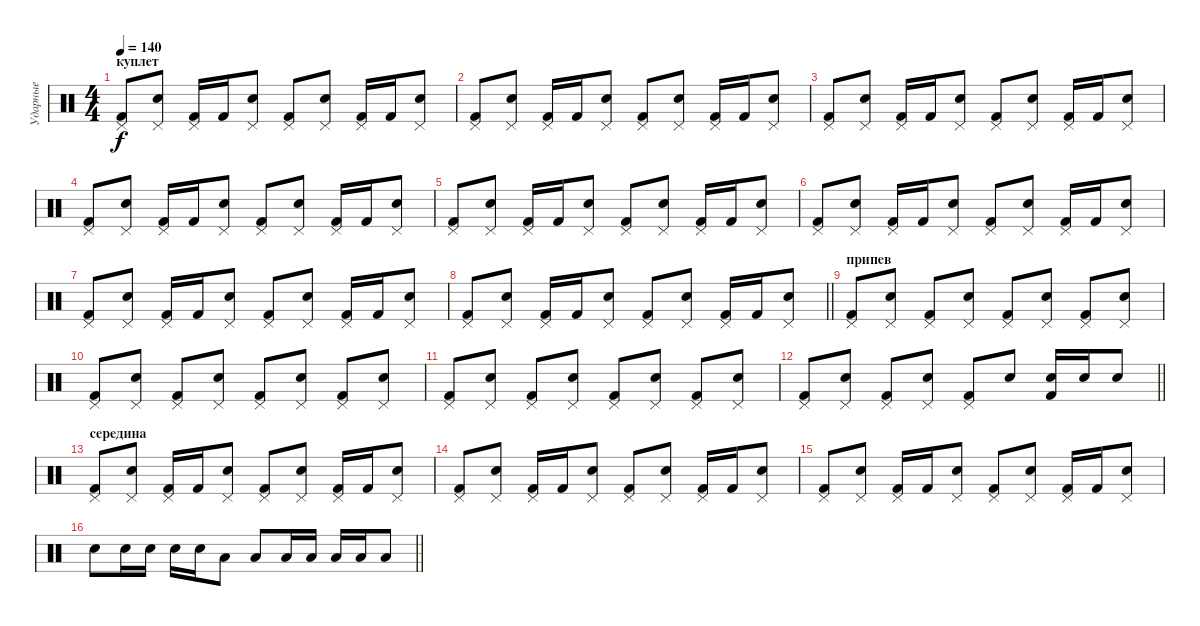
\track ("Ударные" "Ударные") {instrument percussion}
\staff {score}
\articulation defaults
\ts (4 4)
\section ("" "куплет")
\tempo 140
\clef neutral
\ks c
("Pedal Hi-Hat (hit)" "Kick (hit) 2").8{dy f} ("Pedal Hi-Hat (hit)" "Electric Snare (hit)").8 ("Pedal Hi-Hat (hit)" "Kick (hit) 2").16 "Kick (hit) 2".16 ("Pedal Hi-Hat (hit)" "Electric Snare (hit)").8 ("Pedal Hi-Hat (hit)" "Kick (hit) 2").8 ("Pedal Hi-Hat (hit)" "Electric Snare (hit)").8 ("Pedal Hi-Hat (hit)" "Kick (hit) 2").16 "Kick (hit) 2".16 ("Pedal Hi-Hat (hit)" "Electric Snare (hit)").8 |
("Pedal Hi-Hat (hit)" "Kick (hit) 2").8 ("Pedal Hi-Hat (hit)" "Electric Snare (hit)").8 ("Pedal Hi-Hat (hit)" "Kick (hit) 2").16 "Kick (hit) 2".16 ("Pedal Hi-Hat (hit)" "Electric Snare (hit)").8 ("Pedal Hi-Hat (hit)" "Kick (hit) 2").8 ("Pedal Hi-Hat (hit)" "Electric Snare (hit)").8 ("Pedal Hi-Hat (hit)" "Kick (hit) 2").16 "Kick (hit) 2".16 ("Pedal Hi-Hat (hit)" "Electric Snare (hit)").8 |
("Pedal Hi-Hat (hit)" "Kick (hit) 2").8 ("Pedal Hi-Hat (hit)" "Electric Snare (hit)").8 ("Pedal Hi-Hat (hit)" "Kick (hit) 2").16 "Kick (hit) 2".16 ("Pedal Hi-Hat (hit)" "Electric Snare (hit)").8 ("Pedal Hi-Hat (hit)" "Kick (hit) 2").8 ("Pedal Hi-Hat (hit)" "Electric Snare (hit)").8 ("Pedal Hi-Hat (hit)" "Kick (hit) 2").16 "Kick (hit) 2".16 ("Pedal Hi-Hat (hit)" "Electric Snare (hit)").8 |
("Pedal Hi-Hat (hit)" "Kick (hit) 2").8 ("Pedal Hi-Hat (hit)" "Electric Snare (hit)").8 ("Pedal Hi-Hat (hit)" "Kick (hit) 2").16 "Kick (hit) 2".16 ("Pedal Hi-Hat (hit)" "Electric Snare (hit)").8 ("Pedal Hi-Hat (hit)" "Kick (hit) 2").8 ("Pedal Hi-Hat (hit)" "Electric Snare (hit)").8 ("Pedal Hi-Hat (hit)" "Kick (hit) 2").16 "Kick (hit) 2".16 ("Pedal Hi-Hat (hit)" "Electric Snare (hit)").8 |
("Pedal Hi-Hat (hit)" "Kick (hit) 2").8 ("Pedal Hi-Hat (hit)" "Electric Snare (hit)").8 ("Pedal Hi-Hat (hit)" "Kick (hit) 2").16 "Kick (hit) 2".16 ("Pedal Hi-Hat (hit)" "Electric Snare (hit)").8 ("Pedal Hi-Hat (hit)" "Kick (hit) 2").8 ("Pedal Hi-Hat (hit)" "Electric Snare (hit)").8 ("Pedal Hi-Hat (hit)" "Kick (hit) 2").16 "Kick (hit) 2".16 ("Pedal Hi-Hat (hit)" "Electric Snare (hit)").8 |
("Pedal Hi-Hat (hit)" "Kick (hit) 2").8 ("Pedal Hi-Hat (hit)" "Electric Snare (hit)").8 ("Pedal Hi-Hat (hit)" "Kick (hit) 2").16 "Kick (hit) 2".16 ("Pedal Hi-Hat (hit)" "Electric Snare (hit)").8 ("Pedal Hi-Hat (hit)" "Kick (hit) 2").8 ("Pedal Hi-Hat (hit)" "Electric Snare (hit)").8 ("Pedal Hi-Hat (hit)" "Kick (hit) 2").16 "Kick (hit) 2".16 ("Pedal Hi-Hat (hit)" "Electric Snare (hit)").8 |
("Pedal Hi-Hat (hit)" "Kick (hit) 2").8 ("Pedal Hi-Hat (hit)" "Electric Snare (hit)").8 ("Pedal Hi-Hat (hit)" "Kick (hit) 2").16 "Kick (hit) 2".16 ("Pedal Hi-Hat (hit)" "Electric Snare (hit)").8 ("Pedal Hi-Hat (hit)" "Kick (hit) 2").8 ("Pedal Hi-Hat (hit)" "Electric Snare (hit)").8 ("Pedal Hi-Hat (hit)" "Kick (hit) 2").16 "Kick (hit) 2".16 ("Pedal Hi-Hat (hit)" "Electric Snare (hit)").8 |
\barLineRight lightlight
("Pedal Hi-Hat (hit)" "Kick (hit) 2").8 ("Pedal Hi-Hat (hit)" "Electric Snare (hit)").8 ("Pedal Hi-Hat (hit)" "Kick (hit) 2").16 "Kick (hit) 2".16 ("Pedal Hi-Hat (hit)" "Electric Snare (hit)").8 ("Pedal Hi-Hat (hit)" "Kick (hit) 2").8 ("Pedal Hi-Hat (hit)" "Electric Snare (hit)").8 ("Pedal Hi-Hat (hit)" "Kick (hit) 2").16 "Kick (hit) 2".16 ("Pedal Hi-Hat (hit)" "Electric Snare (hit)").8 |
\section ("" "припев")
("Pedal Hi-Hat (hit)" "Kick (hit) 2").8 ("Pedal Hi-Hat (hit)" "Electric Snare (hit)").8 ("Pedal Hi-Hat (hit)" "Kick (hit) 2").8 ("Pedal Hi-Hat (hit)" "Electric Snare (hit)").8 ("Pedal Hi-Hat (hit)" "Kick (hit) 2").8 ("Pedal Hi-Hat (hit)" "Electric Snare (hit)").8 ("Pedal Hi-Hat (hit)" "Kick (hit) 2").8 ("Pedal Hi-Hat (hit)" "Electric Snare (hit)").8 |
("Pedal Hi-Hat (hit)" "Kick (hit) 2").8 ("Pedal Hi-Hat (hit)" "Electric Snare (hit)").8 ("Pedal Hi-Hat (hit)" "Kick (hit) 2").8 ("Pedal Hi-Hat (hit)" "Electric Snare (hit)").8 ("Pedal Hi-Hat (hit)" "Kick (hit) 2").8 ("Pedal Hi-Hat (hit)" "Electric Snare (hit)").8 ("Pedal Hi-Hat (hit)" "Kick (hit) 2").8 ("Pedal Hi-Hat (hit)" "Electric Snare (hit)").8 |
("Pedal Hi-Hat (hit)" "Kick (hit) 2").8 ("Pedal Hi-Hat (hit)" "Electric Snare (hit)").8 ("Pedal Hi-Hat (hit)" "Kick (hit) 2").8 ("Pedal Hi-Hat (hit)" "Electric Snare (hit)").8 ("Pedal Hi-Hat (hit)" "Kick (hit) 2").8 ("Pedal Hi-Hat (hit)" "Electric Snare (hit)").8 ("Pedal Hi-Hat (hit)" "Kick (hit) 2").8 ("Pedal Hi-Hat (hit)" "Electric Snare (hit)").8 |
\barLineRight lightlight
("Pedal Hi-Hat (hit)" "Kick (hit) 2").8 ("Pedal Hi-Hat (hit)" "Electric Snare (hit)").8 ("Pedal Hi-Hat (hit)" "Kick (hit) 2").8 ("Pedal Hi-Hat (hit)" "Electric Snare (hit)").8 ("Pedal Hi-Hat (hit)" "Kick (hit) 2").8 "Electric Snare (hit)".8 ("Electric Snare (hit)" "Kick (hit) 2").16 "Electric Snare (hit)".16 "Electric Snare (hit)".8 |
\section ("" "середина")
("Pedal Hi-Hat (hit)" "Kick (hit) 2").8 ("Pedal Hi-Hat (hit)" "Electric Snare (hit)").8 ("Pedal Hi-Hat (hit)" "Kick (hit) 2").16 "Kick (hit) 2".16 ("Pedal Hi-Hat (hit)" "Electric Snare (hit)").8 ("Pedal Hi-Hat (hit)" "Kick (hit) 2").8 ("Pedal Hi-Hat (hit)" "Electric Snare (hit)").8 ("Pedal Hi-Hat (hit)" "Kick (hit) 2").16 "Kick (hit) 2".16 ("Pedal Hi-Hat (hit)" "Electric Snare (hit)").8 |
("Pedal Hi-Hat (hit)" "Kick (hit) 2").8 ("Pedal Hi-Hat (hit)" "Electric Snare (hit)").8 ("Pedal Hi-Hat (hit)" "Kick (hit) 2").16 "Kick (hit) 2".16 ("Pedal Hi-Hat (hit)" "Electric Snare (hit)").8 ("Pedal Hi-Hat (hit)" "Kick (hit) 2").8 ("Pedal Hi-Hat (hit)" "Electric Snare (hit)").8 ("Pedal Hi-Hat (hit)" "Kick (hit) 2").16 "Kick (hit) 2".16 ("Pedal Hi-Hat (hit)" "Electric Snare (hit)").8 |
("Pedal Hi-Hat (hit)" "Kick (hit) 2").8 ("Pedal Hi-Hat (hit)" "Electric Snare (hit)").8 ("Pedal Hi-Hat (hit)" "Kick (hit) 2").16 "Kick (hit) 2".16 ("Pedal Hi-Hat (hit)" "Electric Snare (hit)").8 ("Pedal Hi-Hat (hit)" "Kick (hit) 2").8 ("Pedal Hi-Hat (hit)" "Electric Snare (hit)").8 ("Pedal Hi-Hat (hit)" "Kick (hit) 2").16 "Kick (hit) 2".16 ("Pedal Hi-Hat (hit)" "Electric Snare (hit)").8 |
\barLineRight lightlight "Electric Snare (hit)".8 "Electric Snare (hit)".16 "Electric Snare (hit)".16 "Electric Snare (hit)".16 "Electric Snare (hit)".16 "Low Tom (hit)".8 "Low Tom (hit)".8 "Low Tom (hit)".16 "Low Tom (hit)".16 "Low Tom (hit)".16 "Low Tom (hit)".16 "Low Tom (hit)".8
